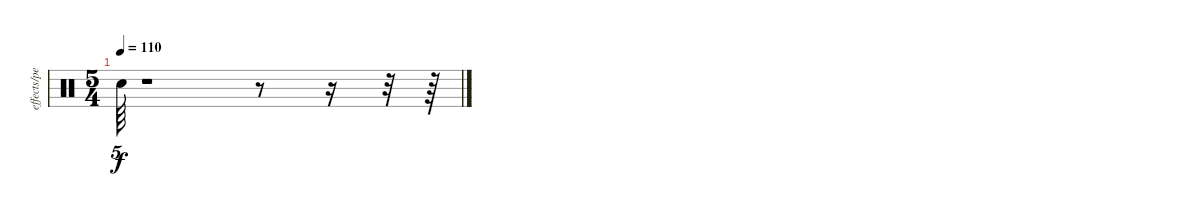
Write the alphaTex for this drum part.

\track ("effects/percussion" "effects/pe") {instrument percussion}
\staff {score}
\articulation defaults
\ts (5 4)
\tempo 110
\clef neutral
\ks c "Snare (hit)"{t}.64{tu (5 4) dy f}
r.1 r.8 r.16 r.32 r.64
